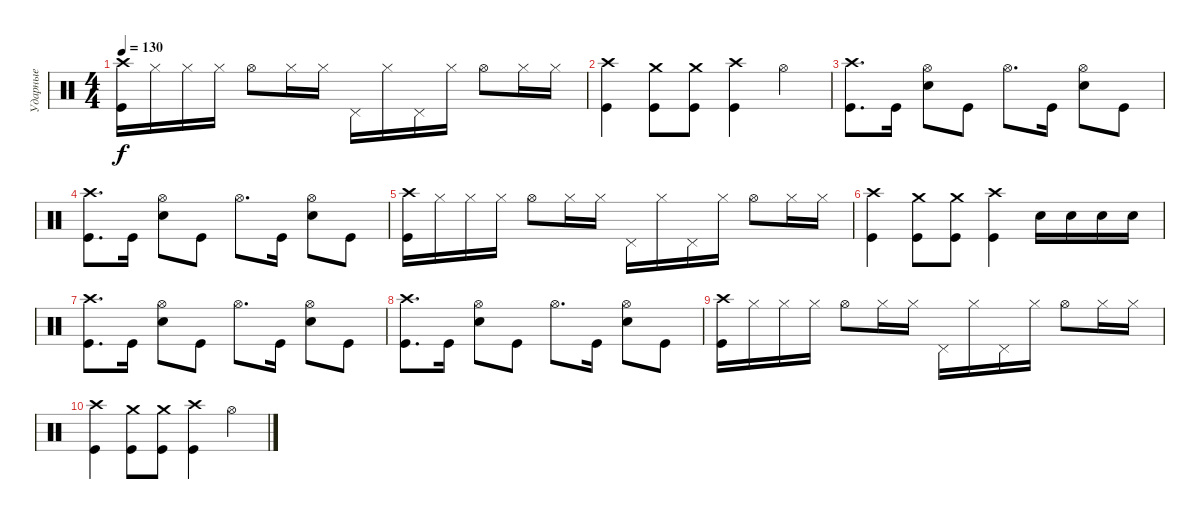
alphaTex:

\track ("Ударные" "Ударные") {instrument percussion}
\staff {score}
\articulation defaults
\ts (4 4)
\tempo 130
\clef neutral
\ks c
("Kick (hit)" "Crash high (hit)").16{dy f} "Hi-Hat (closed)".16 "Hi-Hat (closed)".16 "Hi-Hat (closed)".16 "Hi-Hat (open)".8 "Hi-Hat (closed)".16 "Hi-Hat (closed)".16 "Pedal Hi-Hat (hit)".16 "Hi-Hat (closed)".16 "Pedal Hi-Hat (hit)".16 "Hi-Hat (closed)".16 "Hi-Hat (open)".8 "Hi-Hat (closed)".16 "Hi-Hat (closed)".16 |
("Kick (hit)" "Crash high (hit)").4 ("Crash medium (hit)" "Kick (hit)").8 ("Crash medium (hit)" "Kick (hit)").8 ("Crash high (hit)" "Kick (hit)").4 "Hi-Hat (open)".4 |
("Kick (hit)" "Crash high (hit)").8{d} "Kick (hit)".16 ("Snare (hit) 2" "Hi-Hat (open)").8 "Kick (hit)".8 "Hi-Hat (open)".8{d} "Kick (hit)".16 ("Snare (hit) 2" "Hi-Hat (open)").8 "Kick (hit)".8 |
("Kick (hit)" "Crash high (hit)").8{d} "Kick (hit)".16 ("Snare (hit) 2" "Hi-Hat (open)").8 "Kick (hit)".8 "Hi-Hat (open)".8{d} "Kick (hit)".16 ("Snare (hit) 2" "Hi-Hat (open)").8 "Kick (hit)".8 |
("Kick (hit)" "Crash high (hit)").16 "Hi-Hat (closed)".16 "Hi-Hat (closed)".16 "Hi-Hat (closed)".16 "Hi-Hat (open)".8 "Hi-Hat (closed)".16 "Hi-Hat (closed)".16 "Pedal Hi-Hat (hit)".16 "Hi-Hat (closed)".16 "Pedal Hi-Hat (hit)".16 "Hi-Hat (closed)".16 "Hi-Hat (open)".8 "Hi-Hat (closed)".16 "Hi-Hat (closed)".16 |
("Kick (hit)" "Crash high (hit)").4 ("Crash medium (hit)" "Kick (hit)").8 ("Crash medium (hit)" "Kick (hit)").8 ("Crash high (hit)" "Kick (hit)").4 "Snare (hit) 2".16 "Snare (hit) 2".16 "Snare (hit) 2".16 "Snare (hit) 2".16 |
("Kick (hit)" "Crash high (hit)").8{d} "Kick (hit)".16 ("Snare (hit) 2" "Hi-Hat (open)").8 "Kick (hit)".8 "Hi-Hat (open)".8{d} "Kick (hit)".16 ("Snare (hit) 2" "Hi-Hat (open)").8 "Kick (hit)".8 |
("Kick (hit)" "Crash high (hit)").8{d} "Kick (hit)".16 ("Snare (hit) 2" "Hi-Hat (open)").8 "Kick (hit)".8 "Hi-Hat (open)".8{d} "Kick (hit)".16 ("Snare (hit) 2" "Hi-Hat (open)").8 "Kick (hit)".8 |
("Kick (hit)" "Crash high (hit)").16 "Hi-Hat (closed)".16 "Hi-Hat (closed)".16 "Hi-Hat (closed)".16 "Hi-Hat (open)".8 "Hi-Hat (closed)".16 "Hi-Hat (closed)".16 "Pedal Hi-Hat (hit)".16 "Hi-Hat (closed)".16 "Pedal Hi-Hat (hit)".16 "Hi-Hat (closed)".16 "Hi-Hat (open)".8 "Hi-Hat (closed)".16 "Hi-Hat (closed)".16 |
("Kick (hit)" "Crash high (hit)").4 ("Crash medium (hit)" "Kick (hit)").8 ("Crash medium (hit)" "Kick (hit)").8 ("Crash high (hit)" "Kick (hit)").4 "Hi-Hat (open)".4
